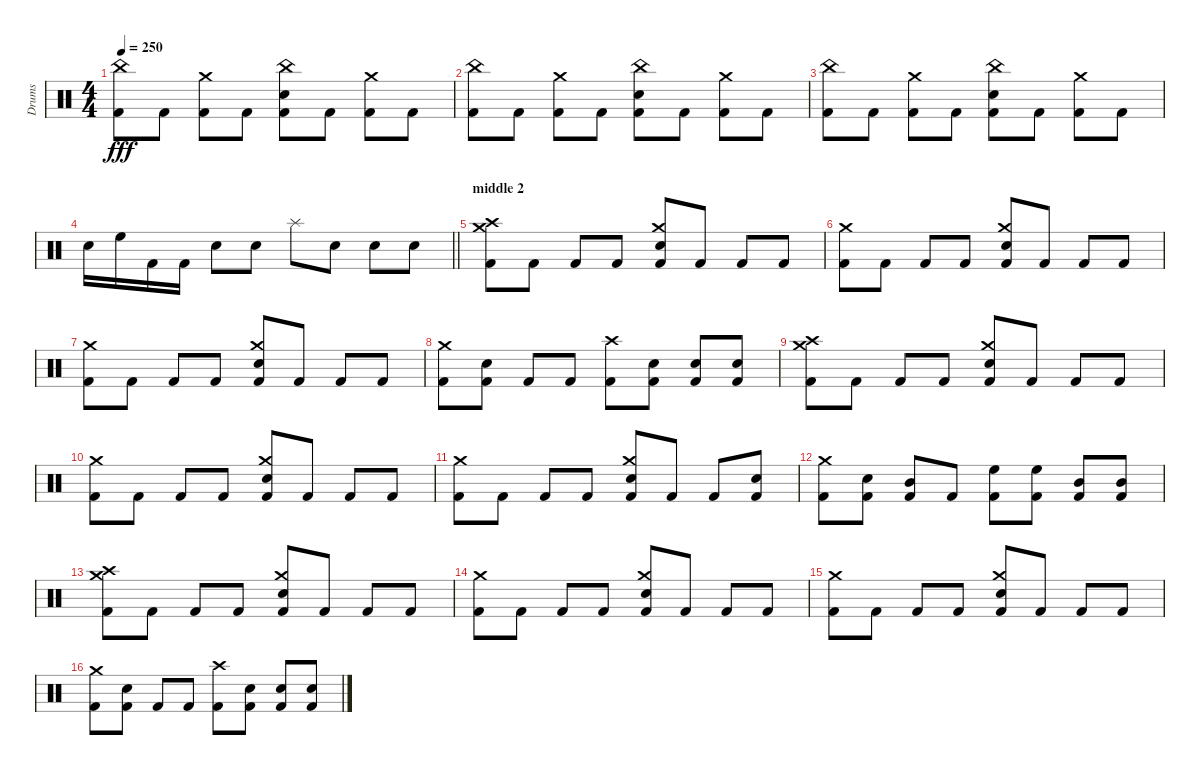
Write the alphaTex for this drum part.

\track ("Drums" "Drums") {solo instrument percussion}
\staff {score}
\articulation defaults
\ts (4 4)
\tempo 250
\clef neutral
\ks c
("China (hit)" "Kick (hit) 2").8{dy fff} "Kick (hit) 2".8 ("Crash medium (hit)" "Kick (hit) 2").8 "Kick (hit) 2".8 ("China (hit)" "Snare (hit) 2" "Kick (hit) 2").8 "Kick (hit) 2".8 ("Crash medium (hit)" "Kick (hit) 2").8 "Kick (hit) 2".8 |
("China (hit)" "Kick (hit) 2").8 "Kick (hit) 2".8 ("Crash medium (hit)" "Kick (hit) 2").8 "Kick (hit) 2".8 ("China (hit)" "Snare (hit) 2" "Kick (hit) 2").8 "Kick (hit) 2".8 ("Crash medium (hit)" "Kick (hit) 2").8 "Kick (hit) 2".8 |
("China (hit)" "Kick (hit) 2").8 "Kick (hit) 2".8 ("Crash medium (hit)" "Kick (hit) 2").8 "Kick (hit) 2".8 ("China (hit)" "Snare (hit) 2" "Kick (hit) 2").8 "Kick (hit) 2".8 ("Crash medium (hit)" "Kick (hit) 2").8 "Kick (hit) 2".8 |
\barLineRight lightlight "Snare (hit) 2".16 "High Floor Tom (hit)".16 "Kick (hit) 2".16 "Kick (hit) 2".16 "Snare (hit) 2".8 "Snare (hit) 2".8 "Splash (hit)".8 "Snare (hit) 2".8 "Snare (hit) 2".8 "Snare (hit) 2".8
|
\section ("" "middle 2")
("Crash medium (hit)" "Crash high (hit)" "Kick (hit) 2").8 "Kick (hit) 2".8 "Kick (hit) 2".8 "Kick (hit) 2".8 ("Crash medium (hit)" "Snare (hit) 2" "Kick (hit) 2").8 "Kick (hit) 2".8 "Kick (hit) 2".8 "Kick (hit) 2".8 |
("Crash medium (hit)" "Kick (hit) 2").8 "Kick (hit) 2".8 "Kick (hit) 2".8 "Kick (hit) 2".8 ("Crash medium (hit)" "Snare (hit) 2" "Kick (hit) 2").8 "Kick (hit) 2".8 "Kick (hit) 2".8 "Kick (hit) 2".8 |
("Crash medium (hit)" "Kick (hit) 2").8 "Kick (hit) 2".8 "Kick (hit) 2".8 "Kick (hit) 2".8 ("Crash medium (hit)" "Snare (hit) 2" "Kick (hit) 2").8 "Kick (hit) 2".8 "Kick (hit) 2".8 "Kick (hit) 2".8 |
("Crash medium (hit)" "Kick (hit) 2").8 ("Snare (hit) 2" "Kick (hit) 2").8 "Kick (hit) 2".8 "Kick (hit) 2".8 ("Crash high (hit)" "Kick (hit) 2").8 ("Snare (hit) 2" "Kick (hit) 2").8 ("Snare (hit) 2" "Kick (hit) 2").8 ("Snare (hit) 2" "Kick (hit) 2").8 |
("Crash medium (hit)" "Crash high (hit)" "Kick (hit) 2").8 "Kick (hit) 2".8 "Kick (hit) 2".8 "Kick (hit) 2".8 ("Crash medium (hit)" "Snare (hit) 2" "Kick (hit) 2").8 "Kick (hit) 2".8 "Kick (hit) 2".8 "Kick (hit) 2".8 |
("Crash medium (hit)" "Kick (hit) 2").8 "Kick (hit) 2".8 "Kick (hit) 2".8 "Kick (hit) 2".8 ("Crash medium (hit)" "Snare (hit) 2" "Kick (hit) 2").8 "Kick (hit) 2".8 "Kick (hit) 2".8 "Kick (hit) 2".8 |
("Crash medium (hit)" "Kick (hit) 2").8 "Kick (hit) 2".8 "Kick (hit) 2".8 "Kick (hit) 2".8 ("Crash medium (hit)" "Snare (hit) 2" "Kick (hit) 2").8 "Kick (hit) 2".8 "Kick (hit) 2".8 ("Snare (hit) 2" "Kick (hit) 2").8 |
("Crash medium (hit)" "Kick (hit) 2").8 ("Snare (hit) 2" "Kick (hit) 2").8 ("Mid Tom (hit)" "Kick (hit) 2").8 "Kick (hit) 2".8 ("High Floor Tom (hit)" "Kick (hit) 2").8 ("High Floor Tom (hit)" "Kick (hit) 2").8 ("Mid Tom (hit)" "Kick (hit) 2").8 ("Mid Tom (hit)" "Kick (hit) 2").8 |
("Crash medium (hit)" "Crash high (hit)" "Kick (hit) 2").8 "Kick (hit) 2".8 "Kick (hit) 2".8 "Kick (hit) 2".8 ("Crash medium (hit)" "Snare (hit) 2" "Kick (hit) 2").8 "Kick (hit) 2".8 "Kick (hit) 2".8 "Kick (hit) 2".8 |
("Crash medium (hit)" "Kick (hit) 2").8 "Kick (hit) 2".8 "Kick (hit) 2".8 "Kick (hit) 2".8 ("Crash medium (hit)" "Snare (hit) 2" "Kick (hit) 2").8 "Kick (hit) 2".8 "Kick (hit) 2".8 "Kick (hit) 2".8 |
("Crash medium (hit)" "Kick (hit) 2").8 "Kick (hit) 2".8 "Kick (hit) 2".8 "Kick (hit) 2".8 ("Crash medium (hit)" "Snare (hit) 2" "Kick (hit) 2").8 "Kick (hit) 2".8 "Kick (hit) 2".8 "Kick (hit) 2".8 |
("Crash medium (hit)" "Kick (hit) 2").8 ("Snare (hit) 2" "Kick (hit) 2").8 "Kick (hit) 2".8 "Kick (hit) 2".8 ("Crash high (hit)" "Kick (hit) 2").8 ("Snare (hit) 2" "Kick (hit) 2").8 ("Snare (hit) 2" "Kick (hit) 2").8 ("Snare (hit) 2" "Kick (hit) 2").8
